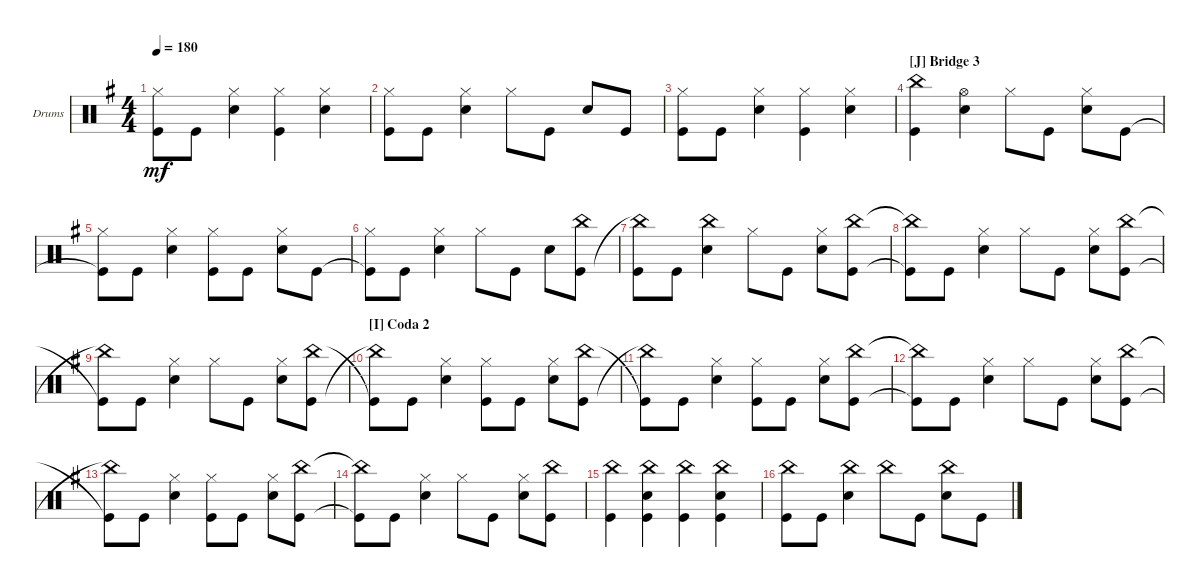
\defaultSystemsLayout 4
\bracketExtendMode groupsimilarinstruments
\firstSystemTrackNameOrientation horizontal
\otherSystemsTrackNameOrientation horizontal
\track ("Drumkit" "Drums") {instrument percussion}
\staff {score}
\articulation defaults
\ts (4 4)
\tempo 180
\clef neutral
\scale
0.333333
\ks g
("Hi-Hat (closed)" "Kick (hit)"{t}).8{dy mf} "Kick (hit)".8 ("Snare (hit) 2" "Hi-Hat (closed)").4 ("Kick (hit)" "Hi-Hat (closed)").4 ("Snare (hit) 2" "Hi-Hat (closed)").4 |
\scale
0.333333 ("Kick (hit)" "Hi-Hat (closed)").8 "Kick (hit)".8 ("Snare (hit) 2" "Hi-Hat (closed)").4 "Hi-Hat (closed)".8 "Kick (hit)".8 "Snare (hit) 2".8 "Kick (hit)".8 |
\scale
0.333333 ("Kick (hit)" "Hi-Hat (closed)").8 "Kick (hit)".8 ("Snare (hit) 2" "Hi-Hat (closed)").4 ("Hi-Hat (closed)" "Kick (hit)").4 ("Snare (hit) 2" "Hi-Hat (closed)").4 |
\section ("J" "Bridge 3")
\scale
0.333333 ("Kick (hit)" "China (hit)").4 ("Snare (hit) 2" "Hi-Hat (open)").4 "Hi-Hat (closed)".8 "Kick (hit)".8 ("Snare (hit) 2" "Hi-Hat (closed)").8 "Kick (hit)".8 |
\scale
0.333333 ("Kick (hit)"{t} "Hi-Hat (closed)").8 "Kick (hit)".8 ("Snare (hit) 2" "Hi-Hat (closed)").4 ("Kick (hit)" "Hi-Hat (closed)").8 "Kick (hit)".8 ("Snare (hit) 2" "Hi-Hat (closed)").8 "Kick (hit)".8 |
\scale
0.333333 ("Kick (hit)"{t} "Hi-Hat (closed)").8 "Kick (hit)".8 ("Snare (hit) 2" "Hi-Hat (closed)").4 "Hi-Hat (closed)".8 "Kick (hit)".8 "Snare (hit) 2".8 ("Kick (hit)" "China (hit)").8 |
\scale
0.333333 ("China (hit)"{t} "Kick (hit)").8 "Kick (hit)".8 ("Snare (hit) 2" "China (hit)").4 "Hi-Hat (closed)".8 "Kick (hit)".8 ("Snare (hit) 2" "Hi-Hat (closed)").8 ("China (hit)" "Kick (hit)").8 |
\scale
0.333333 ("China (hit)"{t} "Kick (hit)"{t}).8 "Kick (hit)".8 ("Snare (hit) 2" "Hi-Hat (closed)").4 "Hi-Hat (closed)".8 "Kick (hit)".8 ("Snare (hit) 2" "Hi-Hat (closed)").8 ("Kick (hit)" "China (hit)").8 |
\scale
0.333333 ("China (hit)"{t} "Kick (hit)"{t}).8 "Kick (hit)".8 ("Snare (hit) 2" "Hi-Hat (closed)").4 "Hi-Hat (closed)".8 "Kick (hit)".8 ("Snare (hit) 2" "Hi-Hat (closed)").8 ("Kick (hit)" "China (hit)").8 |
\section ("I" "Coda 2")
\scale
0.333333 ("China (hit)"{t} "Kick (hit)"{t}).8 "Kick (hit)".8 ("Snare (hit) 2" "Hi-Hat (closed)").4 ("Hi-Hat (closed)" "Kick (hit)").8 "Kick (hit)".8 ("Snare (hit) 2" "Hi-Hat (closed)").8 ("Kick (hit)" "China (hit)").8 |
\scale
0.333333 ("China (hit)"{t} "Kick (hit)"{t}).8 "Kick (hit)".8 ("Snare (hit) 2" "Hi-Hat (closed)").4 ("Hi-Hat (closed)" "Kick (hit)").8 "Kick (hit)".8 ("Snare (hit) 2" "Hi-Hat (closed)").8 ("Kick (hit)" "China (hit)").8 |
\scale
0.333333 ("Kick (hit)"{t} "China (hit)"{t}).8 "Kick (hit)".8 ("Snare (hit) 2" "Hi-Hat (closed)").4 "Hi-Hat (closed)".8 "Kick (hit)".8 ("Snare (hit) 2" "Hi-Hat (closed)").8 ("Kick (hit)" "China (hit)").8 |
\scale
0.333333 ("China (hit)"{t} "Kick (hit)"{t}).8 "Kick (hit)".8 ("Snare (hit) 2" "Hi-Hat (closed)").4 ("Hi-Hat (closed)" "Kick (hit)").8 "Kick (hit)".8 ("Snare (hit) 2" "Hi-Hat (closed)").8 ("Kick (hit)" "China (hit)").8 |
\scale
0.333333 ("Kick (hit)"{t} "China (hit)"{t}).8 "Kick (hit)".8 ("Snare (hit) 2" "Hi-Hat (closed)").4 "Hi-Hat (closed)".8 "Kick (hit)".8 ("Snare (hit) 2" "Hi-Hat (closed)").8 ("Kick (hit)" "China (hit)").8 |
\scale
0.333333 ("Kick (hit)" "China (hit)").4 ("Kick (hit)" "China (hit)" "Snare (hit) 2").4 ("Kick (hit)" "China (hit)").4 ("Kick (hit)" "China (hit)" "Snare (hit) 2").4 |
\scale
0.333333 ("Kick (hit)" "China (hit)").8 "Kick (hit)".8 ("Snare (hit) 2" "China (hit)").4 "China (hit)".8 "Kick (hit)".8 ("Snare (hit) 2" "China (hit)").8 "Kick (hit)".8
